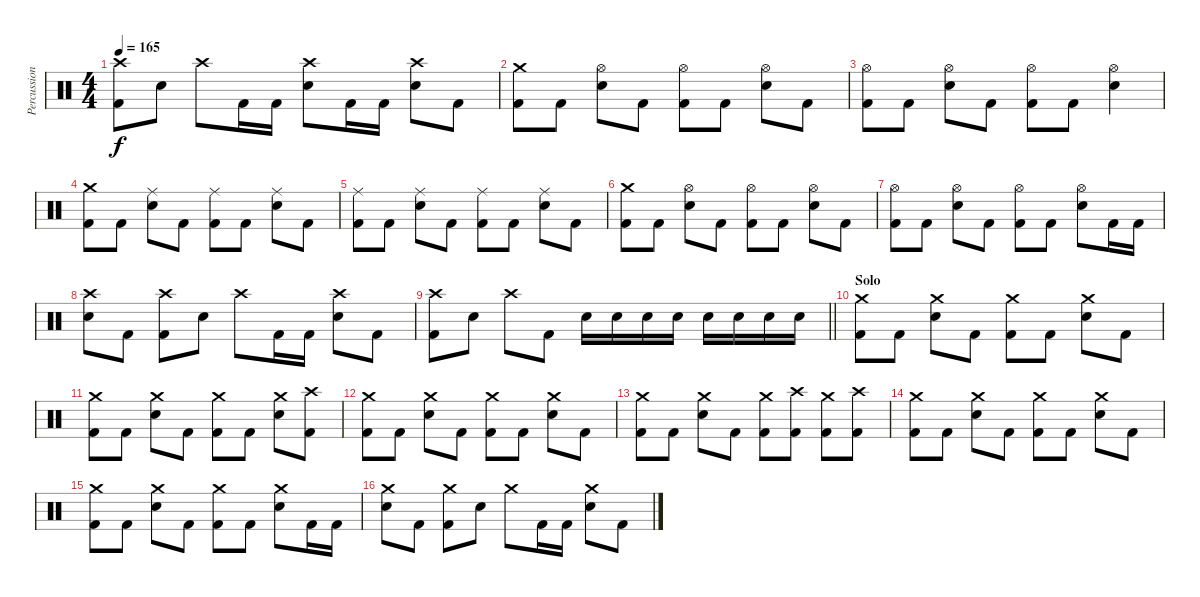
\track ("Percussions" "Percussion") {instrument percussion}
\staff
\articulation defaults
\ts (4 4)
\tempo 165
\clef neutral
\ks c
("Crash high (hit)" "Kick (hit) 2").8{dy f} "Electric Snare (hit)".8 "Crash high (hit)".8 "Kick (hit) 2".16 "Kick (hit) 2".16 ("Crash high (hit)" "Electric Snare (hit)").8 "Kick (hit) 2".16 "Kick (hit) 2".16 ("Crash high (hit)" "Electric Snare (hit)").8 "Kick (hit) 2".8 |
("Crash medium (hit)" "Kick (hit) 2").8 "Kick (hit) 2".8 ("Hi-Hat (open)" "Electric Snare (hit)").8 "Kick (hit) 2".8 ("Hi-Hat (open)" "Kick (hit) 2").8 "Kick (hit) 2".8 ("Hi-Hat (open)" "Electric Snare (hit)").8 "Kick (hit) 2".8 |
("Hi-Hat (open)" "Kick (hit) 2").8 "Kick (hit) 2".8 ("Hi-Hat (open)" "Electric Snare (hit)").8 "Kick (hit) 2".8 ("Hi-Hat (open)" "Kick (hit) 2").8 "Kick (hit) 2".8 ("Hi-Hat (open)" "Electric Snare (hit)").4 |
("Crash medium (hit)" "Kick (hit) 2").8 "Kick (hit) 2".8 ("Ride (middle)" "Electric Snare (hit)").8 "Kick (hit) 2".8 ("Ride (middle)" "Kick (hit) 2").8 "Kick (hit) 2".8 ("Ride (middle)" "Electric Snare (hit)").8 "Kick (hit) 2".8 |
("Ride (middle)" "Kick (hit) 2").8 "Kick (hit) 2".8 ("Ride (middle)" "Electric Snare (hit)").8 "Kick (hit) 2".8 ("Ride (middle)" "Kick (hit) 2").8 "Kick (hit) 2".8 ("Ride (middle)" "Electric Snare (hit)").8 "Kick (hit) 2".8 |
("Crash medium (hit)" "Kick (hit) 2").8 "Kick (hit) 2".8 ("Hi-Hat (open)" "Electric Snare (hit)").8 "Kick (hit) 2".8 ("Hi-Hat (open)" "Kick (hit) 2").8 "Kick (hit) 2".8 ("Hi-Hat (open)" "Electric Snare (hit)").8 "Kick (hit) 2".8 |
("Hi-Hat (open)" "Kick (hit) 2").8 "Kick (hit) 2".8 ("Hi-Hat (open)" "Electric Snare (hit)").8 "Kick (hit) 2".8 ("Hi-Hat (open)" "Kick (hit) 2").8 "Kick (hit) 2".8 ("Hi-Hat (open)" "Electric Snare (hit)").8 "Kick (hit) 2".16 "Kick (hit) 2".16 |
("Crash high (hit)" "Electric Snare (hit)").8 "Kick (hit) 2".8 ("Crash high (hit)" "Kick (hit) 2").8 "Electric Snare (hit)".8 "Crash high (hit)".8 "Kick (hit) 2".16 "Kick (hit) 2".16 ("Crash high (hit)" "Electric Snare (hit)").8 "Kick (hit) 2".8 |
\barLineRight lightlight
("Crash high (hit)" "Kick (hit) 2").8 "Electric Snare (hit)".8 "Crash high (hit)".8 "Kick (hit) 2".8 "Electric Snare (hit)".16 "Electric Snare (hit)".16 "Electric Snare (hit)".16 "Electric Snare (hit)".16 "Electric Snare (hit)".16 "Electric Snare (hit)".16 "Electric Snare (hit)".16 "Electric Snare (hit)".16 |
\section ("" "Solo")
("Crash medium (hit)" "Kick (hit) 2").8 "Kick (hit) 2".8 ("Crash medium (hit)" "Electric Snare (hit)").8 "Kick (hit) 2".8 ("Crash medium (hit)" "Kick (hit) 2").8 "Kick (hit) 2".8 ("Crash medium (hit)" "Electric Snare (hit)").8 "Kick (hit) 2".8 |
("Crash medium (hit)" "Kick (hit) 2").8 "Kick (hit) 2".8 ("Crash medium (hit)" "Electric Snare (hit)").8 "Kick (hit) 2".8 ("Crash medium (hit)" "Kick (hit) 2").8 "Kick (hit) 2".8 ("Crash medium (hit)" "Electric Snare (hit)").8 ("Crash high (hit)" "Kick (hit) 2").8 |
("Crash medium (hit)" "Kick (hit) 2").8 "Kick (hit) 2".8 ("Crash medium (hit)" "Electric Snare (hit)").8 "Kick (hit) 2".8 ("Crash medium (hit)" "Kick (hit) 2").8 "Kick (hit) 2".8 ("Crash medium (hit)" "Electric Snare (hit)").8 "Kick (hit) 2".8 |
("Crash medium (hit)" "Kick (hit) 2").8 "Kick (hit) 2".8 ("Crash medium (hit)" "Electric Snare (hit)").8 "Kick (hit) 2".8 ("Crash medium (hit)" "Kick (hit) 2").8 ("Crash high (hit)" "Kick (hit) 2").8 ("Crash medium (hit)" "Kick (hit) 2").8 ("Crash high (hit)" "Kick (hit) 2").8 |
("Crash medium (hit)" "Kick (hit) 2").8 "Kick (hit) 2".8 ("Crash medium (hit)" "Electric Snare (hit)").8 "Kick (hit) 2".8 ("Crash medium (hit)" "Kick (hit) 2").8 "Kick (hit) 2".8 ("Crash medium (hit)" "Electric Snare (hit)").8 "Kick (hit) 2".8 |
("Crash medium (hit)" "Kick (hit) 2").8 "Kick (hit) 2".8 ("Crash medium (hit)" "Electric Snare (hit)").8 "Kick (hit) 2".8 ("Crash medium (hit)" "Kick (hit) 2").8 "Kick (hit) 2".8 ("Crash medium (hit)" "Electric Snare (hit)").8 "Kick (hit) 2".16 "Kick (hit) 2".16 |
("Crash medium (hit)" "Electric Snare (hit)").8 "Kick (hit) 2".8 ("Crash medium (hit)" "Kick (hit) 2").8 "Electric Snare (hit)".8 "Crash medium (hit)".8 "Kick (hit) 2".16 "Kick (hit) 2".16 ("Crash medium (hit)" "Electric Snare (hit)").8 "Kick (hit) 2".8
